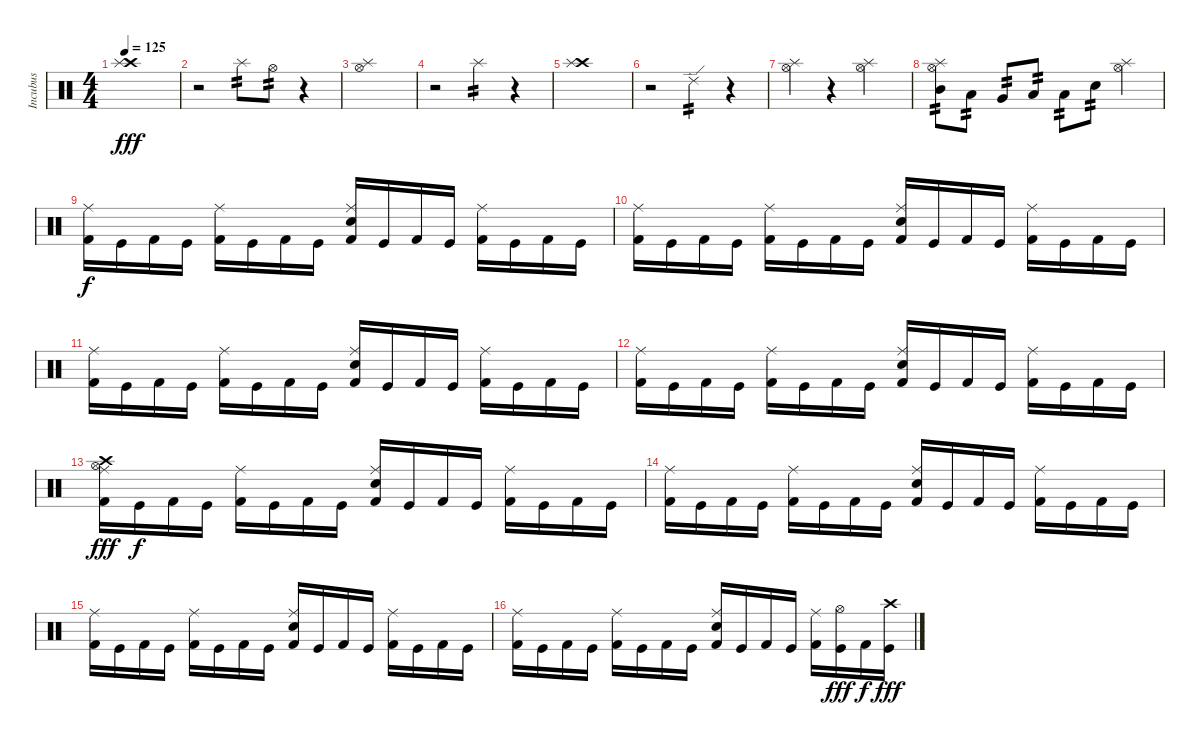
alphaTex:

\track ("Incubus" "Incubus") {instrument percussion}
\staff {score}
\articulation defaults
\ts (4 4)
\tempo 125
\clef neutral
\ks c
("Crash high (hit)" "Splash (hit)").1{dy fff} |
r.2 "Splash (hit)".8{tp 2} "Hi-Hat (open)".8{tp 2} r.4 |
("Hi-Hat (open)" "Splash (hit)").1 |
r.2 "Splash (hit)".4{tp 2} r.4 |
("Crash high (hit)" "Splash (hit)").1 |
r.2 "Ride (edge) 2".4{tp 2} r.4 |
("Hi-Hat (open)" "Splash (hit)").4 r.4 ("Hi-Hat (open)" "Splash (hit)").2 |
("Hi-Hat (open)" "Splash (hit)" "Mid Tom (hit)").8{tp 2} "Low Tom (hit)".8{tp 2} "Very Low Tom (hit)".8{tp 2} "Low Floor Tom (hit)".8{tp 2} "Low Floor Tom (hit)".8{tp 2} "Snare (hit) 2".8{tp 2} ("Hi-Hat (open)" "Splash (hit)").4 |
("Ride (middle)" "Kick (hit) 2").16{dy f} "Kick (hit)".16 "Kick (hit) 2".16 "Kick (hit)".16 ("Ride (middle)" "Kick (hit) 2").16 "Kick (hit)".16 "Kick (hit) 2".16 "Kick (hit)".16 ("Ride (middle)" "Snare (hit) 2" "Kick (hit) 2").16 "Kick (hit)".16 "Kick (hit) 2".16 "Kick (hit)".16 ("Ride (middle)" "Kick (hit) 2").16 "Kick (hit)".16 "Kick (hit) 2".16 "Kick (hit)".16 |
("Ride (middle)" "Kick (hit) 2").16 "Kick (hit)".16 "Kick (hit) 2".16 "Kick (hit)".16 ("Ride (middle)" "Kick (hit) 2").16 "Kick (hit)".16 "Kick (hit) 2".16 "Kick (hit)".16 ("Ride (middle)" "Snare (hit) 2" "Kick (hit) 2").16 "Kick (hit)".16 "Kick (hit) 2".16 "Kick (hit)".16 ("Ride (middle)" "Kick (hit) 2").16 "Kick (hit)".16 "Kick (hit) 2".16 "Kick (hit)".16 |
("Ride (middle)" "Kick (hit) 2").16 "Kick (hit)".16 "Kick (hit) 2".16 "Kick (hit)".16 ("Ride (middle)" "Kick (hit) 2").16 "Kick (hit)".16 "Kick (hit) 2".16 "Kick (hit)".16 ("Ride (middle)" "Snare (hit) 2" "Kick (hit) 2").16 "Kick (hit)".16 "Kick (hit) 2".16 "Kick (hit)".16 ("Ride (middle)" "Kick (hit) 2").16 "Kick (hit)".16 "Kick (hit) 2".16 "Kick (hit)".16 |
("Ride (middle)" "Kick (hit) 2").16 "Kick (hit)".16 "Kick (hit) 2".16 "Kick (hit)".16 ("Ride (middle)" "Kick (hit) 2").16 "Kick (hit)".16 "Kick (hit) 2".16 "Kick (hit)".16 ("Ride (middle)" "Snare (hit) 2" "Kick (hit) 2").16 "Kick (hit)".16 "Kick (hit) 2".16 "Kick (hit)".16 ("Ride (middle)" "Kick (hit) 2").16 "Kick (hit)".16 "Kick (hit) 2".16 "Kick (hit)".16 |
("Hi-Hat (open)" "Crash high (hit)" "Ride (middle)" "Kick (hit) 2").16{dy fff} "Kick (hit)".16{dy f} "Kick (hit) 2".16 "Kick (hit)".16 ("Ride (middle)" "Kick (hit) 2").16 "Kick (hit)".16 "Kick (hit) 2".16 "Kick (hit)".16 ("Ride (middle)" "Snare (hit) 2" "Kick (hit) 2").16 "Kick (hit)".16 "Kick (hit) 2".16 "Kick (hit)".16 ("Ride (middle)" "Kick (hit) 2").16 "Kick (hit)".16 "Kick (hit) 2".16 "Kick (hit)".16 |
("Ride (middle)" "Kick (hit) 2").16 "Kick (hit)".16 "Kick (hit) 2".16 "Kick (hit)".16 ("Ride (middle)" "Kick (hit) 2").16 "Kick (hit)".16 "Kick (hit) 2".16 "Kick (hit)".16 ("Ride (middle)" "Snare (hit) 2" "Kick (hit) 2").16 "Kick (hit)".16 "Kick (hit) 2".16 "Kick (hit)".16 ("Ride (middle)" "Kick (hit) 2").16 "Kick (hit)".16 "Kick (hit) 2".16 "Kick (hit)".16 |
("Ride (middle)" "Kick (hit) 2").16 "Kick (hit)".16 "Kick (hit) 2".16 "Kick (hit)".16 ("Ride (middle)" "Kick (hit) 2").16 "Kick (hit)".16 "Kick (hit) 2".16 "Kick (hit)".16 ("Ride (middle)" "Snare (hit) 2" "Kick (hit) 2").16 "Kick (hit)".16 "Kick (hit) 2".16 "Kick (hit)".16 ("Ride (middle)" "Kick (hit) 2").16 "Kick (hit)".16 "Kick (hit) 2".16 "Kick (hit)".16 |
("Ride (middle)" "Kick (hit) 2").16 "Kick (hit)".16 "Kick (hit) 2".16 "Kick (hit)".16 ("Ride (middle)" "Kick (hit) 2").16 "Kick (hit)".16 "Kick (hit) 2".16 "Kick (hit)".16 ("Ride (middle)" "Snare (hit) 2" "Kick (hit) 2").16 "Kick (hit)".16 "Kick (hit) 2".16 "Kick (hit)".16 ("Ride (middle)" "Kick (hit) 2").16 ("Hi-Hat (open)" "Kick (hit)").16{dy fff} "Kick (hit) 2".16{dy f} ("Crash high (hit)" "Kick (hit)").16{dy fff}
